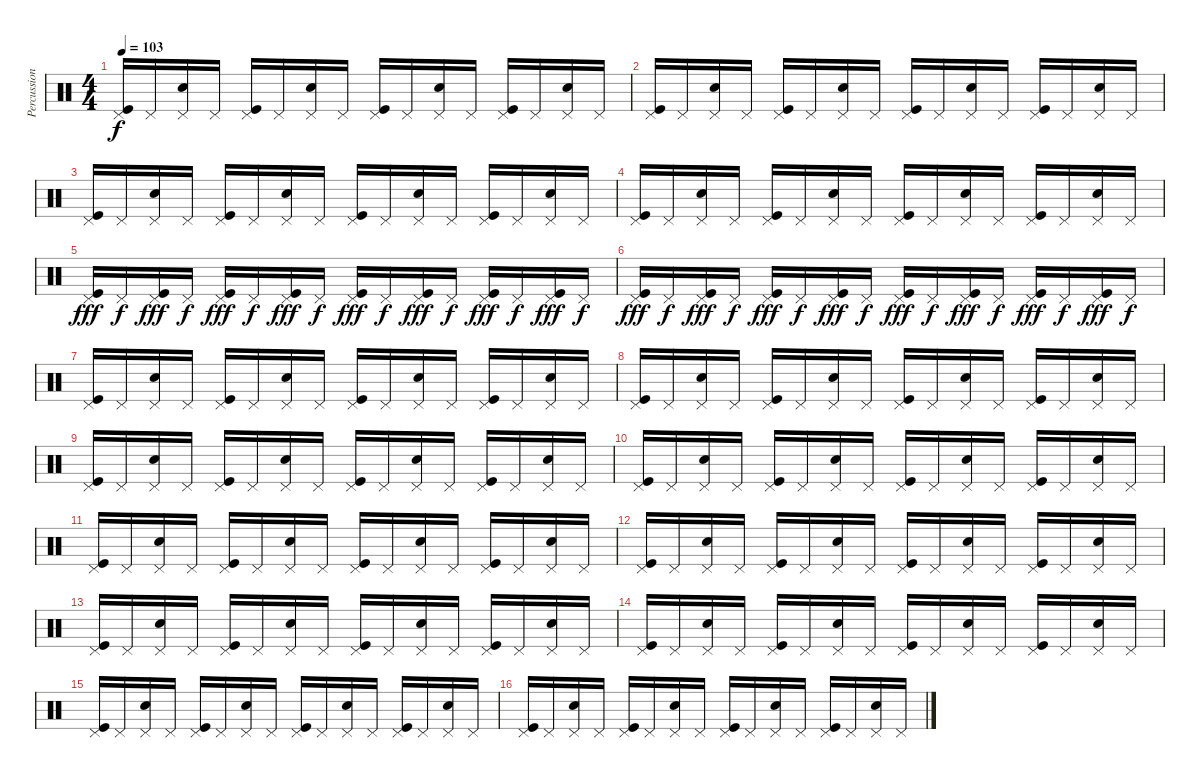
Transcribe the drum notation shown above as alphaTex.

\track ("Percussion" "Percussion") {instrument percussion}
\staff {score}
\articulation defaults
\ts (4 4)
\tempo 103
\clef neutral
\ks c
("Kick (hit)" "Pedal Hi-Hat (hit)").16{dy f} "Pedal Hi-Hat (hit)".16 ("Snare (hit) 2" "Pedal Hi-Hat (hit)").16 "Pedal Hi-Hat (hit)".16 ("Kick (hit)" "Pedal Hi-Hat (hit)").16 "Pedal Hi-Hat (hit)".16 ("Snare (hit) 2" "Pedal Hi-Hat (hit)").16 "Pedal Hi-Hat (hit)".16 ("Kick (hit)" "Pedal Hi-Hat (hit)").16 "Pedal Hi-Hat (hit)".16 ("Snare (hit) 2" "Pedal Hi-Hat (hit)").16 "Pedal Hi-Hat (hit)".16 ("Kick (hit)" "Pedal Hi-Hat (hit)").16 "Pedal Hi-Hat (hit)".16 ("Snare (hit) 2" "Pedal Hi-Hat (hit)").16 "Pedal Hi-Hat (hit)".16 |
("Kick (hit)" "Pedal Hi-Hat (hit)").16 "Pedal Hi-Hat (hit)".16 ("Snare (hit) 2" "Pedal Hi-Hat (hit)").16 "Pedal Hi-Hat (hit)".16 ("Kick (hit)" "Pedal Hi-Hat (hit)").16 "Pedal Hi-Hat (hit)".16 ("Snare (hit) 2" "Pedal Hi-Hat (hit)").16 "Pedal Hi-Hat (hit)".16 ("Kick (hit)" "Pedal Hi-Hat (hit)").16 "Pedal Hi-Hat (hit)".16 ("Snare (hit) 2" "Pedal Hi-Hat (hit)").16 "Pedal Hi-Hat (hit)".16 ("Kick (hit)" "Pedal Hi-Hat (hit)").16 "Pedal Hi-Hat (hit)".16 ("Snare (hit) 2" "Pedal Hi-Hat (hit)").16 "Pedal Hi-Hat (hit)".16 |
("Kick (hit)" "Pedal Hi-Hat (hit)").16 "Pedal Hi-Hat (hit)".16 ("Snare (hit) 2" "Pedal Hi-Hat (hit)").16 "Pedal Hi-Hat (hit)".16 ("Kick (hit)" "Pedal Hi-Hat (hit)").16 "Pedal Hi-Hat (hit)".16 ("Snare (hit) 2" "Pedal Hi-Hat (hit)").16 "Pedal Hi-Hat (hit)".16 ("Kick (hit)" "Pedal Hi-Hat (hit)").16 "Pedal Hi-Hat (hit)".16 ("Snare (hit) 2" "Pedal Hi-Hat (hit)").16 "Pedal Hi-Hat (hit)".16 ("Kick (hit)" "Pedal Hi-Hat (hit)").16 "Pedal Hi-Hat (hit)".16 ("Snare (hit) 2" "Pedal Hi-Hat (hit)").16 "Pedal Hi-Hat (hit)".16 |
("Kick (hit)" "Pedal Hi-Hat (hit)").16 "Pedal Hi-Hat (hit)".16 ("Snare (hit) 2" "Pedal Hi-Hat (hit)").16 "Pedal Hi-Hat (hit)".16 ("Kick (hit)" "Pedal Hi-Hat (hit)").16 "Pedal Hi-Hat (hit)".16 ("Snare (hit) 2" "Pedal Hi-Hat (hit)").16 "Pedal Hi-Hat (hit)".16 ("Kick (hit)" "Pedal Hi-Hat (hit)").16 "Pedal Hi-Hat (hit)".16 ("Snare (hit) 2" "Pedal Hi-Hat (hit)").16 "Pedal Hi-Hat (hit)".16 ("Kick (hit)" "Pedal Hi-Hat (hit)").16 "Pedal Hi-Hat (hit)".16 ("Snare (hit) 2" "Pedal Hi-Hat (hit)").16 "Pedal Hi-Hat (hit)".16 |
("Kick (hit)" "Pedal Hi-Hat (hit)").16{dy fff} "Pedal Hi-Hat (hit)".16{dy f} ("Kick (hit)" "Pedal Hi-Hat (hit)").16{dy fff} "Pedal Hi-Hat (hit)".16{dy f} ("Kick (hit)" "Pedal Hi-Hat (hit)").16{dy fff} "Pedal Hi-Hat (hit)".16{dy f} ("Kick (hit)" "Pedal Hi-Hat (hit)").16{dy fff} "Pedal Hi-Hat (hit)".16{dy f} ("Kick (hit)" "Pedal Hi-Hat (hit)").16{dy fff} "Pedal Hi-Hat (hit)".16{dy f} ("Kick (hit)" "Pedal Hi-Hat (hit)").16{dy fff} "Pedal Hi-Hat (hit)".16{dy f} ("Kick (hit)" "Pedal Hi-Hat (hit)").16{dy fff} "Pedal Hi-Hat (hit)".16{dy f} ("Kick (hit)" "Pedal Hi-Hat (hit)").16{dy fff} "Pedal Hi-Hat (hit)".16{dy f} |
("Kick (hit)" "Pedal Hi-Hat (hit)").16{dy fff} "Pedal Hi-Hat (hit)".16{dy f} ("Kick (hit)" "Pedal Hi-Hat (hit)").16{dy fff} "Pedal Hi-Hat (hit)".16{dy f} ("Kick (hit)" "Pedal Hi-Hat (hit)").16{dy fff} "Pedal Hi-Hat (hit)".16{dy f} ("Kick (hit)" "Pedal Hi-Hat (hit)").16{dy fff} "Pedal Hi-Hat (hit)".16{dy f} ("Kick (hit)" "Pedal Hi-Hat (hit)").16{dy fff} "Pedal Hi-Hat (hit)".16{dy f} ("Kick (hit)" "Pedal Hi-Hat (hit)").16{dy fff} "Pedal Hi-Hat (hit)".16{dy f} ("Kick (hit)" "Pedal Hi-Hat (hit)").16{dy fff} "Pedal Hi-Hat (hit)".16{dy f} ("Kick (hit)" "Pedal Hi-Hat (hit)").16{dy fff} "Pedal Hi-Hat (hit)".16{dy f} |
("Kick (hit)" "Pedal Hi-Hat (hit)").16 "Pedal Hi-Hat (hit)".16 ("Snare (hit) 2" "Pedal Hi-Hat (hit)").16 "Pedal Hi-Hat (hit)".16 ("Kick (hit)" "Pedal Hi-Hat (hit)").16 "Pedal Hi-Hat (hit)".16 ("Snare (hit) 2" "Pedal Hi-Hat (hit)").16 "Pedal Hi-Hat (hit)".16 ("Kick (hit)" "Pedal Hi-Hat (hit)").16 "Pedal Hi-Hat (hit)".16 ("Snare (hit) 2" "Pedal Hi-Hat (hit)").16 "Pedal Hi-Hat (hit)".16 ("Kick (hit)" "Pedal Hi-Hat (hit)").16 "Pedal Hi-Hat (hit)".16 ("Snare (hit) 2" "Pedal Hi-Hat (hit)").16 "Pedal Hi-Hat (hit)".16 |
("Kick (hit)" "Pedal Hi-Hat (hit)").16 "Pedal Hi-Hat (hit)".16 ("Snare (hit) 2" "Pedal Hi-Hat (hit)").16 "Pedal Hi-Hat (hit)".16 ("Kick (hit)" "Pedal Hi-Hat (hit)").16 "Pedal Hi-Hat (hit)".16 ("Snare (hit) 2" "Pedal Hi-Hat (hit)").16 "Pedal Hi-Hat (hit)".16 ("Kick (hit)" "Pedal Hi-Hat (hit)").16 "Pedal Hi-Hat (hit)".16 ("Snare (hit) 2" "Pedal Hi-Hat (hit)").16 "Pedal Hi-Hat (hit)".16 ("Kick (hit)" "Pedal Hi-Hat (hit)").16 "Pedal Hi-Hat (hit)".16 ("Snare (hit) 2" "Pedal Hi-Hat (hit)").16 "Pedal Hi-Hat (hit)".16 |
("Kick (hit)" "Pedal Hi-Hat (hit)").16 "Pedal Hi-Hat (hit)".16 ("Snare (hit) 2" "Pedal Hi-Hat (hit)").16 "Pedal Hi-Hat (hit)".16 ("Kick (hit)" "Pedal Hi-Hat (hit)").16 "Pedal Hi-Hat (hit)".16 ("Snare (hit) 2" "Pedal Hi-Hat (hit)").16 "Pedal Hi-Hat (hit)".16 ("Kick (hit)" "Pedal Hi-Hat (hit)").16 "Pedal Hi-Hat (hit)".16 ("Snare (hit) 2" "Pedal Hi-Hat (hit)").16 "Pedal Hi-Hat (hit)".16 ("Kick (hit)" "Pedal Hi-Hat (hit)").16 "Pedal Hi-Hat (hit)".16 ("Snare (hit) 2" "Pedal Hi-Hat (hit)").16 "Pedal Hi-Hat (hit)".16 |
("Kick (hit)" "Pedal Hi-Hat (hit)").16 "Pedal Hi-Hat (hit)".16 ("Snare (hit) 2" "Pedal Hi-Hat (hit)").16 "Pedal Hi-Hat (hit)".16 ("Kick (hit)" "Pedal Hi-Hat (hit)").16 "Pedal Hi-Hat (hit)".16 ("Snare (hit) 2" "Pedal Hi-Hat (hit)").16 "Pedal Hi-Hat (hit)".16 ("Kick (hit)" "Pedal Hi-Hat (hit)").16 "Pedal Hi-Hat (hit)".16 ("Snare (hit) 2" "Pedal Hi-Hat (hit)").16 "Pedal Hi-Hat (hit)".16 ("Kick (hit)" "Pedal Hi-Hat (hit)").16 "Pedal Hi-Hat (hit)".16 ("Snare (hit) 2" "Pedal Hi-Hat (hit)").16 "Pedal Hi-Hat (hit)".16 |
("Kick (hit)" "Pedal Hi-Hat (hit)").16 "Pedal Hi-Hat (hit)".16 ("Snare (hit) 2" "Pedal Hi-Hat (hit)").16 "Pedal Hi-Hat (hit)".16 ("Kick (hit)" "Pedal Hi-Hat (hit)").16 "Pedal Hi-Hat (hit)".16 ("Snare (hit) 2" "Pedal Hi-Hat (hit)").16 "Pedal Hi-Hat (hit)".16 ("Kick (hit)" "Pedal Hi-Hat (hit)").16 "Pedal Hi-Hat (hit)".16 ("Snare (hit) 2" "Pedal Hi-Hat (hit)").16 "Pedal Hi-Hat (hit)".16 ("Kick (hit)" "Pedal Hi-Hat (hit)").16 "Pedal Hi-Hat (hit)".16 ("Snare (hit) 2" "Pedal Hi-Hat (hit)").16 "Pedal Hi-Hat (hit)".16 |
("Kick (hit)" "Pedal Hi-Hat (hit)").16 "Pedal Hi-Hat (hit)".16 ("Snare (hit) 2" "Pedal Hi-Hat (hit)").16 "Pedal Hi-Hat (hit)".16 ("Kick (hit)" "Pedal Hi-Hat (hit)").16 "Pedal Hi-Hat (hit)".16 ("Snare (hit) 2" "Pedal Hi-Hat (hit)").16 "Pedal Hi-Hat (hit)".16 ("Kick (hit)" "Pedal Hi-Hat (hit)").16 "Pedal Hi-Hat (hit)".16 ("Snare (hit) 2" "Pedal Hi-Hat (hit)").16 "Pedal Hi-Hat (hit)".16 ("Kick (hit)" "Pedal Hi-Hat (hit)").16 "Pedal Hi-Hat (hit)".16 ("Snare (hit) 2" "Pedal Hi-Hat (hit)").16 "Pedal Hi-Hat (hit)".16 |
("Kick (hit)" "Pedal Hi-Hat (hit)").16 "Pedal Hi-Hat (hit)".16 ("Snare (hit) 2" "Pedal Hi-Hat (hit)").16 "Pedal Hi-Hat (hit)".16 ("Kick (hit)" "Pedal Hi-Hat (hit)").16 "Pedal Hi-Hat (hit)".16 ("Snare (hit) 2" "Pedal Hi-Hat (hit)").16 "Pedal Hi-Hat (hit)".16 ("Kick (hit)" "Pedal Hi-Hat (hit)").16 "Pedal Hi-Hat (hit)".16 ("Snare (hit) 2" "Pedal Hi-Hat (hit)").16 "Pedal Hi-Hat (hit)".16 ("Kick (hit)" "Pedal Hi-Hat (hit)").16 "Pedal Hi-Hat (hit)".16 ("Snare (hit) 2" "Pedal Hi-Hat (hit)").16 "Pedal Hi-Hat (hit)".16 |
("Kick (hit)" "Pedal Hi-Hat (hit)").16 "Pedal Hi-Hat (hit)".16 ("Snare (hit) 2" "Pedal Hi-Hat (hit)").16 "Pedal Hi-Hat (hit)".16 ("Kick (hit)" "Pedal Hi-Hat (hit)").16 "Pedal Hi-Hat (hit)".16 ("Snare (hit) 2" "Pedal Hi-Hat (hit)").16 "Pedal Hi-Hat (hit)".16 ("Kick (hit)" "Pedal Hi-Hat (hit)").16 "Pedal Hi-Hat (hit)".16 ("Snare (hit) 2" "Pedal Hi-Hat (hit)").16 "Pedal Hi-Hat (hit)".16 ("Kick (hit)" "Pedal Hi-Hat (hit)").16 "Pedal Hi-Hat (hit)".16 ("Snare (hit) 2" "Pedal Hi-Hat (hit)").16 "Pedal Hi-Hat (hit)".16 |
("Kick (hit)" "Pedal Hi-Hat (hit)").16 "Pedal Hi-Hat (hit)".16 ("Snare (hit) 2" "Pedal Hi-Hat (hit)").16 "Pedal Hi-Hat (hit)".16 ("Kick (hit)" "Pedal Hi-Hat (hit)").16 "Pedal Hi-Hat (hit)".16 ("Snare (hit) 2" "Pedal Hi-Hat (hit)").16 "Pedal Hi-Hat (hit)".16 ("Kick (hit)" "Pedal Hi-Hat (hit)").16 "Pedal Hi-Hat (hit)".16 ("Snare (hit) 2" "Pedal Hi-Hat (hit)").16 "Pedal Hi-Hat (hit)".16 ("Kick (hit)" "Pedal Hi-Hat (hit)").16 "Pedal Hi-Hat (hit)".16 ("Snare (hit) 2" "Pedal Hi-Hat (hit)").16 "Pedal Hi-Hat (hit)".16 |
("Kick (hit)" "Pedal Hi-Hat (hit)").16 "Pedal Hi-Hat (hit)".16 ("Snare (hit) 2" "Pedal Hi-Hat (hit)").16 "Pedal Hi-Hat (hit)".16 ("Kick (hit)" "Pedal Hi-Hat (hit)").16 "Pedal Hi-Hat (hit)".16 ("Snare (hit) 2" "Pedal Hi-Hat (hit)").16 "Pedal Hi-Hat (hit)".16 ("Kick (hit)" "Pedal Hi-Hat (hit)").16 "Pedal Hi-Hat (hit)".16 ("Snare (hit) 2" "Pedal Hi-Hat (hit)").16 "Pedal Hi-Hat (hit)".16 ("Kick (hit)" "Pedal Hi-Hat (hit)").16 "Pedal Hi-Hat (hit)".16 ("Snare (hit) 2" "Pedal Hi-Hat (hit)").16 "Pedal Hi-Hat (hit)".16
